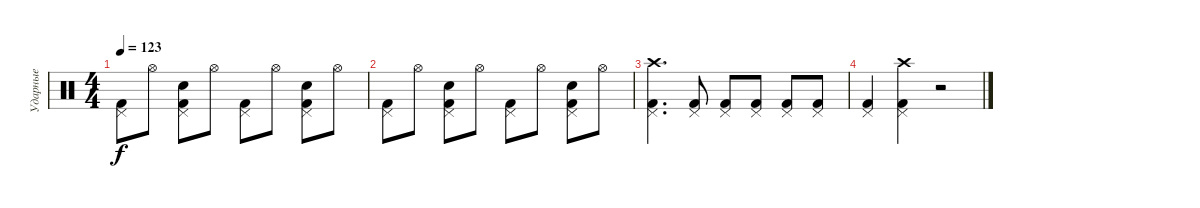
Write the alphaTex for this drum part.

\track ("Ударные" "Ударные") {instrument percussion}
\staff {score}
\articulation defaults
\ts (4 4)
\tempo 123
\clef neutral
\ks c
("Kick (hit) 2" "Pedal Hi-Hat (hit)").8{dy f} "Hi-Hat (open)".8 ("Kick (hit) 2" "Pedal Hi-Hat (hit)" "Hand Clap (hit)").8 "Hi-Hat (open)".8 ("Kick (hit) 2" "Pedal Hi-Hat (hit)").8 "Hi-Hat (open)".8 ("Kick (hit) 2" "Pedal Hi-Hat (hit)" "Hand Clap (hit)").8 "Hi-Hat (open)".8 |
("Kick (hit) 2" "Pedal Hi-Hat (hit)").8 "Hi-Hat (open)".8 ("Kick (hit) 2" "Pedal Hi-Hat (hit)" "Hand Clap (hit)").8 "Hi-Hat (open)".8 ("Kick (hit) 2" "Pedal Hi-Hat (hit)").8 "Hi-Hat (open)".8 ("Kick (hit) 2" "Pedal Hi-Hat (hit)" "Hand Clap (hit)").8 "Hi-Hat (open)".8 |
("Kick (hit) 2" "Pedal Hi-Hat (hit)" "Crash high (hit)").4{d} ("Kick (hit) 2" "Pedal Hi-Hat (hit)").8 ("Kick (hit) 2" "Pedal Hi-Hat (hit)").8 ("Kick (hit) 2" "Pedal Hi-Hat (hit)").8 ("Kick (hit) 2" "Pedal Hi-Hat (hit)").8 ("Kick (hit) 2" "Pedal Hi-Hat (hit)").8 |
("Kick (hit) 2" "Pedal Hi-Hat (hit)").4 ("Kick (hit) 2" "Pedal Hi-Hat (hit)" "Crash high (hit)").4 r.2
